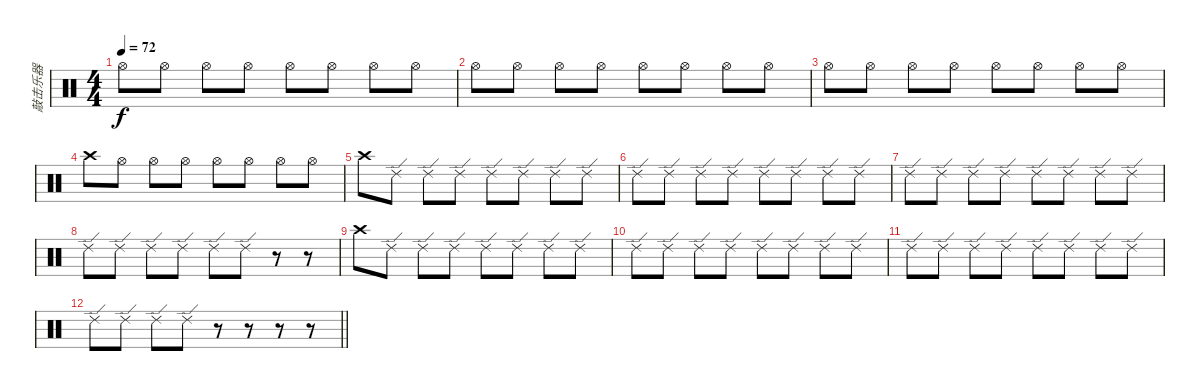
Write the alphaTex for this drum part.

\track ("敲击乐器" "敲击乐器") {instrument percussion}
\staff {score}
\articulation defaults
\ts (4 4)
\tempo 72
\clef neutral
\ks c "Hi-Hat (open)".8{dy f} "Hi-Hat (open)".8 "Hi-Hat (open)".8 "Hi-Hat (open)".8 "Hi-Hat (open)".8 "Hi-Hat (open)".8 "Hi-Hat (open)".8 "Hi-Hat (open)".8
|
"Hi-Hat (open)".8 "Hi-Hat (open)".8 "Hi-Hat (open)".8 "Hi-Hat (open)".8 "Hi-Hat (open)".8 "Hi-Hat (open)".8 "Hi-Hat (open)".8 "Hi-Hat (open)".8 |
"Hi-Hat (open)".8 "Hi-Hat (open)".8 "Hi-Hat (open)".8 "Hi-Hat (open)".8 "Hi-Hat (open)".8 "Hi-Hat (open)".8 "Hi-Hat (open)".8 "Hi-Hat (open)".8 |
"Crash high (hit)".8 "Hi-Hat (open)".8 "Hi-Hat (open)".8 "Hi-Hat (open)".8 "Hi-Hat (open)".8 "Hi-Hat (open)".8 "Hi-Hat (open)".8 "Hi-Hat (open)".8 |
"Crash high (hit)".8 "Ride (edge) 2".8 "Ride (edge) 2".8 "Ride (edge) 2".8 "Ride (edge) 2".8 "Ride (edge) 2".8 "Ride (edge) 2".8 "Ride (edge) 2".8 |
"Ride (edge) 2".8 "Ride (edge) 2".8 "Ride (edge) 2".8 "Ride (edge) 2".8 "Ride (edge) 2".8 "Ride (edge) 2".8 "Ride (edge) 2".8 "Ride (edge) 2".8 |
"Ride (edge) 2".8 "Ride (edge) 2".8 "Ride (edge) 2".8 "Ride (edge) 2".8 "Ride (edge) 2".8 "Ride (edge) 2".8 "Ride (edge) 2".8 "Ride (edge) 2".8 |
"Ride (edge) 2".8 "Ride (edge) 2".8 "Ride (edge) 2".8 "Ride (edge) 2".8 "Ride (edge) 2".8 "Ride (edge) 2".8 r.8 r.8 |
"Crash high (hit)".8 "Ride (edge) 2".8 "Ride (edge) 2".8 "Ride (edge) 2".8 "Ride (edge) 2".8 "Ride (edge) 2".8 "Ride (edge) 2".8 "Ride (edge) 2".8 |
"Ride (edge) 2".8 "Ride (edge) 2".8 "Ride (edge) 2".8 "Ride (edge) 2".8 "Ride (edge) 2".8 "Ride (edge) 2".8 "Ride (edge) 2".8 "Ride (edge) 2".8 |
"Ride (edge) 2".8 "Ride (edge) 2".8 "Ride (edge) 2".8 "Ride (edge) 2".8 "Ride (edge) 2".8 "Ride (edge) 2".8 "Ride (edge) 2".8 "Ride (edge) 2".8 |
\barLineRight lightlight "Ride (edge) 2".8 "Ride (edge) 2".8 "Ride (edge) 2".8 "Ride (edge) 2".8
r.8 r.8 r.8 r.8
